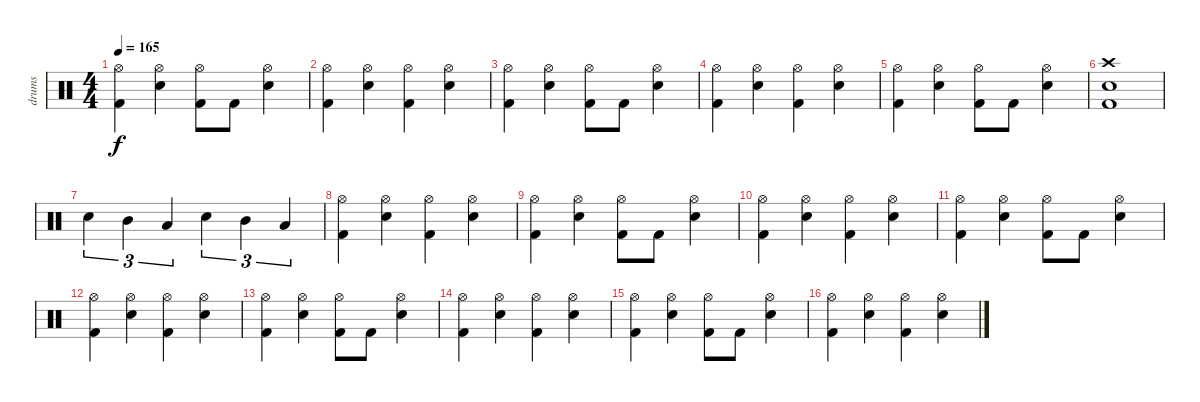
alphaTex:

\track ("drums" "drums") {instrument percussion}
\staff {score}
\articulation defaults
\ts (4 4)
\tempo 165
\clef neutral
\ks c
("Hi-Hat (open)" "Kick (hit) 2").4{dy f} ("Hi-Hat (open)" "Electric Snare (hit)").4 ("Hi-Hat (open)" "Kick (hit) 2").8 "Kick (hit) 2".8 ("Hi-Hat (open)" "Electric Snare (hit)").4 |
("Hi-Hat (open)" "Kick (hit) 2").4 ("Hi-Hat (open)" "Electric Snare (hit)").4 ("Hi-Hat (open)" "Kick (hit) 2").4 ("Hi-Hat (open)" "Electric Snare (hit)").4 |
("Hi-Hat (open)" "Kick (hit) 2").4 ("Hi-Hat (open)" "Electric Snare (hit)").4 ("Hi-Hat (open)" "Kick (hit) 2").8 "Kick (hit) 2".8 ("Hi-Hat (open)" "Electric Snare (hit)").4 |
("Hi-Hat (open)" "Kick (hit) 2").4 ("Hi-Hat (open)" "Electric Snare (hit)").4 ("Hi-Hat (open)" "Kick (hit) 2").4 ("Hi-Hat (open)" "Electric Snare (hit)").4 |
("Hi-Hat (open)" "Kick (hit) 2").4 ("Hi-Hat (open)" "Electric Snare (hit)").4 ("Hi-Hat (open)" "Kick (hit) 2").8 "Kick (hit) 2".8 ("Hi-Hat (open)" "Electric Snare (hit)").4 |
("Crash high (hit)" "Electric Snare (hit)" "Kick (hit) 2").1 |
"Electric Snare (hit)".4{tu (3 2)} "Mid Tom (hit)".4{tu (3 2)} "Low Tom (hit)".4{tu (3 2)} "Electric Snare (hit)".4{tu (3 2)} "Mid Tom (hit)".4{tu (3 2)} "Low Tom (hit)".4{tu (3 2)} |
("Hi-Hat (open)" "Kick (hit) 2").4 ("Hi-Hat (open)" "Electric Snare (hit)").4 ("Hi-Hat (open)" "Kick (hit) 2").4 ("Hi-Hat (open)" "Electric Snare (hit)").4 |
("Hi-Hat (open)" "Kick (hit) 2").4 ("Hi-Hat (open)" "Electric Snare (hit)").4 ("Hi-Hat (open)" "Kick (hit) 2").8 "Kick (hit) 2".8 ("Hi-Hat (open)" "Electric Snare (hit)").4 |
("Hi-Hat (open)" "Kick (hit) 2").4 ("Hi-Hat (open)" "Electric Snare (hit)").4 ("Hi-Hat (open)" "Kick (hit) 2").4 ("Hi-Hat (open)" "Electric Snare (hit)").4 |
("Hi-Hat (open)" "Kick (hit) 2").4 ("Hi-Hat (open)" "Electric Snare (hit)").4 ("Hi-Hat (open)" "Kick (hit) 2").8 "Kick (hit) 2".8 ("Hi-Hat (open)" "Electric Snare (hit)").4 |
("Hi-Hat (open)" "Kick (hit) 2").4 ("Hi-Hat (open)" "Electric Snare (hit)").4 ("Hi-Hat (open)" "Kick (hit) 2").4 ("Hi-Hat (open)" "Electric Snare (hit)").4 |
("Hi-Hat (open)" "Kick (hit) 2").4 ("Hi-Hat (open)" "Electric Snare (hit)").4 ("Hi-Hat (open)" "Kick (hit) 2").8 "Kick (hit) 2".8 ("Hi-Hat (open)" "Electric Snare (hit)").4 |
("Hi-Hat (open)" "Kick (hit) 2").4 ("Hi-Hat (open)" "Electric Snare (hit)").4 ("Hi-Hat (open)" "Kick (hit) 2").4 ("Hi-Hat (open)" "Electric Snare (hit)").4 |
("Hi-Hat (open)" "Kick (hit) 2").4 ("Hi-Hat (open)" "Electric Snare (hit)").4 ("Hi-Hat (open)" "Kick (hit) 2").8 "Kick (hit) 2".8 ("Hi-Hat (open)" "Electric Snare (hit)").4 |
("Hi-Hat (open)" "Kick (hit) 2").4 ("Hi-Hat (open)" "Electric Snare (hit)").4 ("Hi-Hat (open)" "Kick (hit) 2").4 ("Hi-Hat (open)" "Electric Snare (hit)").4
